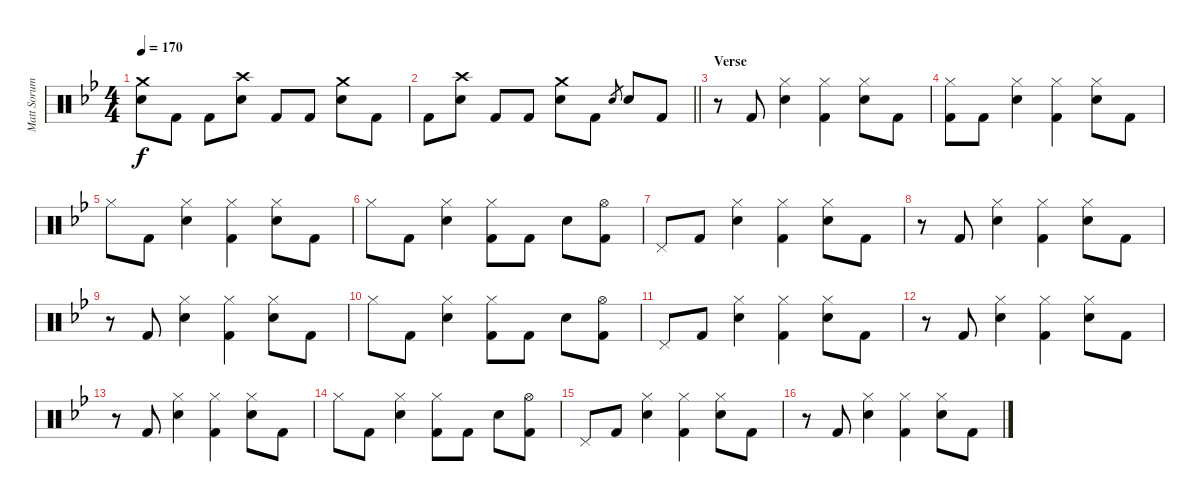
\track ("Matt Sorum - Drums" "Matt Sorum") {instrument percussion}
\staff {score}
\articulation defaults
\ts (4 4)
\tempo 170
\clef neutral
\ks bb
("Crash medium (hit)" "Snare (hit) 2").8{dy f} "Kick (hit) 2".8 "Kick (hit) 2".8 ("Crash high (hit)" "Snare (hit) 2").8 "Kick (hit) 2".8 "Kick (hit) 2".8 ("Crash medium (hit)" "Snare (hit) 2").8 "Kick (hit) 2".8 |
\barLineRight lightlight "Kick (hit) 2".8
("Crash high (hit)" "Snare (hit) 2").8 "Kick (hit) 2".8 "Kick (hit) 2".8 ("Crash medium (hit)" "Snare (hit) 2").8 "Kick (hit) 2".8 "Snare (hit) 2".8{gr} "Snare (hit) 2".8 "Kick (hit) 2".8 |
\section ("" "Verse")
r.8 "Kick (hit) 2".8 ("Hi-Hat (closed)" "Snare (hit) 2").4 ("Hi-Hat (closed)" "Kick (hit) 2").4 ("Hi-Hat (closed)" "Snare (hit) 2").8 "Kick (hit) 2".8 |
("Hi-Hat (closed)" "Kick (hit) 2").8 "Kick (hit) 2".8 ("Hi-Hat (closed)" "Snare (hit) 2").4 ("Hi-Hat (closed)" "Kick (hit) 2").4 ("Hi-Hat (closed)" "Snare (hit) 2").8 "Kick (hit) 2".8 |
"Hi-Hat (closed)".8 "Kick (hit) 2".8 ("Hi-Hat (closed)" "Snare (hit) 2").4 ("Hi-Hat (closed)" "Kick (hit) 2").4 ("Hi-Hat (closed)" "Snare (hit) 2").8 "Kick (hit) 2".8 |
"Hi-Hat (closed)".8 "Kick (hit) 2".8 ("Hi-Hat (closed)" "Snare (hit) 2").4 ("Hi-Hat (closed)" "Kick (hit) 2").8 "Kick (hit) 2".8 "Snare (hit) 2".8 ("Hi-Hat (open)" "Kick (hit) 2").8 |
"Pedal Hi-Hat (hit)".8 "Kick (hit) 2".8 ("Hi-Hat (closed)" "Snare (hit) 2").4 ("Hi-Hat (closed)" "Kick (hit) 2").4 ("Hi-Hat (closed)" "Snare (hit) 2").8 "Kick (hit) 2".8 |
r.8 "Kick (hit) 2".8 ("Hi-Hat (closed)" "Snare (hit) 2").4 ("Hi-Hat (closed)" "Kick (hit) 2").4 ("Hi-Hat (closed)" "Snare (hit) 2").8 "Kick (hit) 2".8 |
r.8 "Kick (hit) 2".8 ("Hi-Hat (closed)" "Snare (hit) 2").4 ("Hi-Hat (closed)" "Kick (hit) 2").4 ("Hi-Hat (closed)" "Snare (hit) 2").8 "Kick (hit) 2".8 |
"Hi-Hat (closed)".8 "Kick (hit) 2".8 ("Hi-Hat (closed)" "Snare (hit) 2").4 ("Hi-Hat (closed)" "Kick (hit) 2").8 "Kick (hit) 2".8 "Snare (hit) 2".8 ("Hi-Hat (open)" "Kick (hit) 2").8 |
"Pedal Hi-Hat (hit)".8 "Kick (hit) 2".8 ("Hi-Hat (closed)" "Snare (hit) 2").4 ("Hi-Hat (closed)" "Kick (hit) 2").4 ("Hi-Hat (closed)" "Snare (hit) 2").8 "Kick (hit) 2".8 |
r.8 "Kick (hit) 2".8 ("Hi-Hat (closed)" "Snare (hit) 2").4 ("Hi-Hat (closed)" "Kick (hit) 2").4 ("Hi-Hat (closed)" "Snare (hit) 2").8 "Kick (hit) 2".8 |
r.8 "Kick (hit) 2".8 ("Hi-Hat (closed)" "Snare (hit) 2").4 ("Hi-Hat (closed)" "Kick (hit) 2").4 ("Hi-Hat (closed)" "Snare (hit) 2").8 "Kick (hit) 2".8 |
"Hi-Hat (closed)".8 "Kick (hit) 2".8 ("Hi-Hat (closed)" "Snare (hit) 2").4 ("Hi-Hat (closed)" "Kick (hit) 2").8 "Kick (hit) 2".8 "Snare (hit) 2".8 ("Hi-Hat (open)" "Kick (hit) 2").8 |
"Pedal Hi-Hat (hit)".8 "Kick (hit) 2".8 ("Hi-Hat (closed)" "Snare (hit) 2").4 ("Hi-Hat (closed)" "Kick (hit) 2").4 ("Hi-Hat (closed)" "Snare (hit) 2").8 "Kick (hit) 2".8 |
r.8 "Kick (hit) 2".8 ("Hi-Hat (closed)" "Snare (hit) 2").4 ("Hi-Hat (closed)" "Kick (hit) 2").4 ("Hi-Hat (closed)" "Snare (hit) 2").8 "Kick (hit) 2".8
